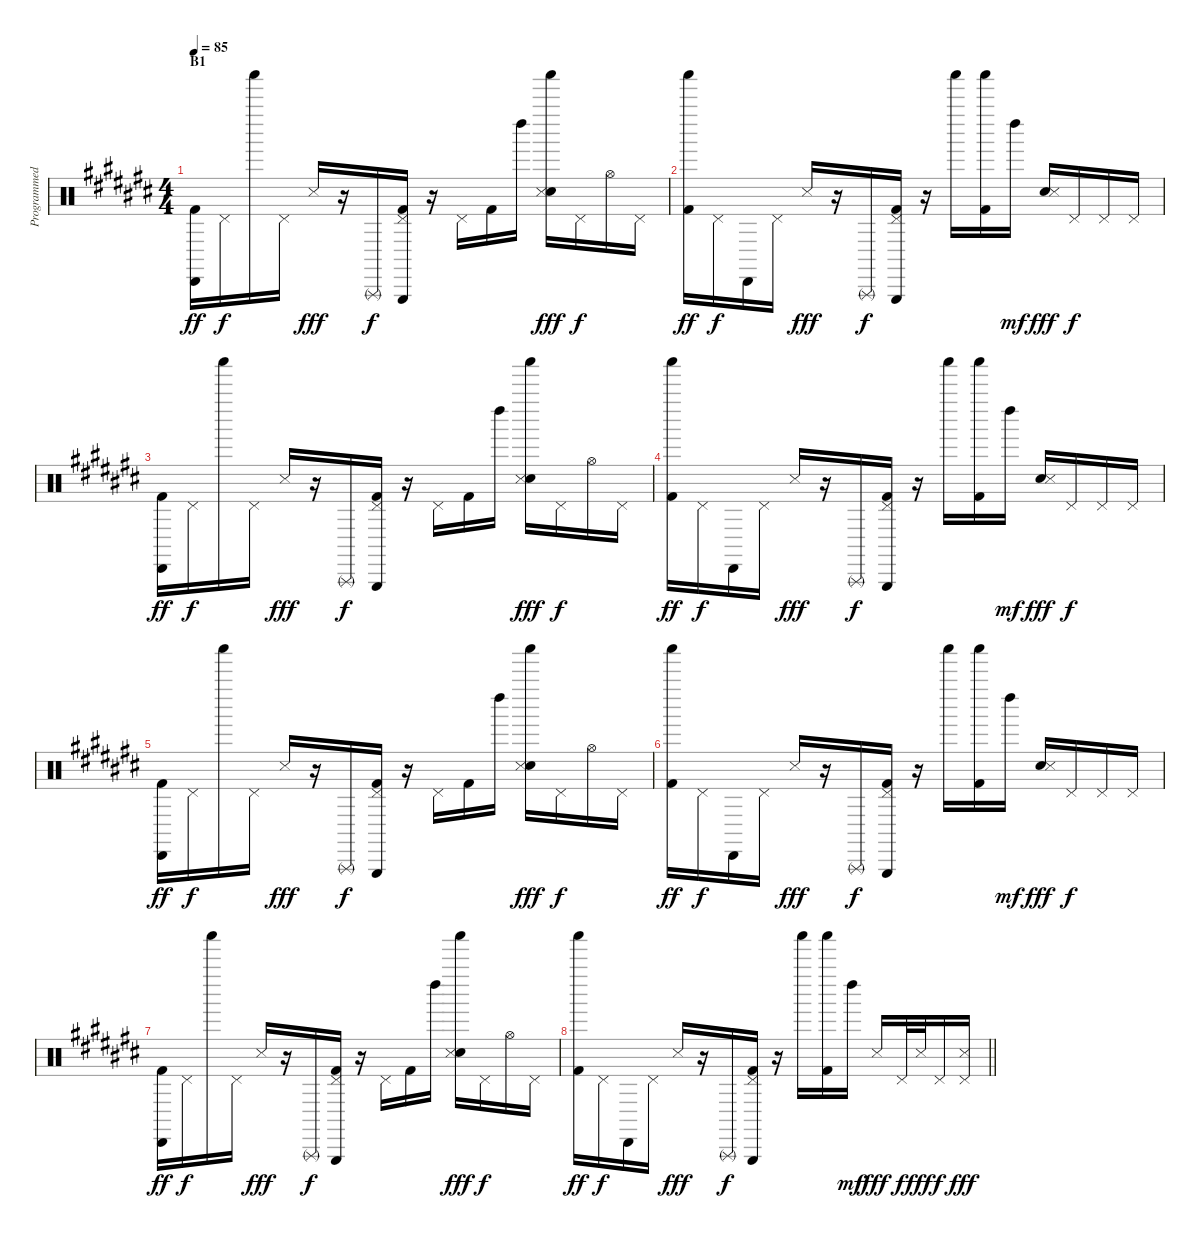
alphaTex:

\track ("Programmed Drum" "Programmed") {instrument percussion}
\staff {score}
\articulation defaults
\ts (4 4)
\section ("" "B1")
\tempo 85
\clef neutral
\ks c#
("Cabasa (hit)" "Kick (hit) 2").16{dy ff} "Pedal Hi-Hat (hit)".16{dy f} "Shaker (hit)".16 "Pedal Hi-Hat (hit)".16 "Snare (side stick) 3".16{dy fff} r.16 "Triangle (rnute)".16{dy f} ("Triangle (hit)" "Pedal Hi-Hat (hit)" "Kick (hit) 2").16 r.16 "Pedal Hi-Hat (hit)".16 "Kick (hit) 2".16 "Left Maraca (hit)".16 ("Shaker (hit)" "Hand Clap (hit)" "Snare (side stick) 3").16{dy fff} "Pedal Hi-Hat (hit)".16{dy f} "Hi-Hat (open)".16 "Pedal Hi-Hat (hit)".16 |
("Shaker (hit)" "Kick (hit) 2").16{dy ff} "Pedal Hi-Hat (hit)".16{dy f} "Cabasa (hit)".16 "Pedal Hi-Hat (hit)".16 "Snare (side stick) 3".16{dy fff} r.16 "Triangle (rnute)".16{dy f} ("Triangle (hit)" "Pedal Hi-Hat (hit)" "Kick (hit) 2").16 r.16 "Shaker (hit)".16 ("Shaker (hit)" "Kick (hit) 2").16 "Left Maraca (hit)".16{dy mf} ("Hand Clap (hit)" "Snare (side stick) 3").16{dy fff} "Pedal Hi-Hat (hit)".16{dy f} "Pedal Hi-Hat (hit)".16 "Pedal Hi-Hat (hit)".16 |
("Cabasa (hit)" "Kick (hit) 2").16{dy ff} "Pedal Hi-Hat (hit)".16{dy f} "Shaker (hit)".16 "Pedal Hi-Hat (hit)".16 "Snare (side stick) 3".16{dy fff} r.16 "Triangle (rnute)".16{dy f} ("Triangle (hit)" "Pedal Hi-Hat (hit)" "Kick (hit) 2").16 r.16 "Pedal Hi-Hat (hit)".16 "Kick (hit) 2".16 "Left Maraca (hit)".16 ("Shaker (hit)" "Hand Clap (hit)" "Snare (side stick) 3").16{dy fff} "Pedal Hi-Hat (hit)".16{dy f} "Hi-Hat (open)".16 "Pedal Hi-Hat (hit)".16 |
("Shaker (hit)" "Kick (hit) 2").16{dy ff} "Pedal Hi-Hat (hit)".16{dy f} "Cabasa (hit)".16 "Pedal Hi-Hat (hit)".16 "Snare (side stick) 3".16{dy fff} r.16 "Triangle (rnute)".16{dy f} ("Triangle (hit)" "Pedal Hi-Hat (hit)" "Kick (hit) 2").16 r.16 "Shaker (hit)".16 ("Shaker (hit)" "Kick (hit) 2").16 "Left Maraca (hit)".16{dy mf} ("Hand Clap (hit)" "Snare (side stick) 3").16{dy fff} "Pedal Hi-Hat (hit)".16{dy f} "Pedal Hi-Hat (hit)".16 "Pedal Hi-Hat (hit)".16 |
("Cabasa (hit)" "Kick (hit) 2").16{dy ff} "Pedal Hi-Hat (hit)".16{dy f} "Shaker (hit)".16 "Pedal Hi-Hat (hit)".16 "Snare (side stick) 3".16{dy fff} r.16 "Triangle (rnute)".16{dy f} ("Triangle (hit)" "Pedal Hi-Hat (hit)" "Kick (hit) 2").16 r.16 "Pedal Hi-Hat (hit)".16 "Kick (hit) 2".16 "Left Maraca (hit)".16 ("Shaker (hit)" "Hand Clap (hit)" "Snare (side stick) 3").16{dy fff} "Pedal Hi-Hat (hit)".16{dy f} "Hi-Hat (open)".16 "Pedal Hi-Hat (hit)".16 |
("Shaker (hit)" "Kick (hit) 2").16{dy ff} "Pedal Hi-Hat (hit)".16{dy f} "Cabasa (hit)".16 "Pedal Hi-Hat (hit)".16 "Snare (side stick) 3".16{dy fff} r.16 "Triangle (rnute)".16{dy f} ("Triangle (hit)" "Pedal Hi-Hat (hit)" "Kick (hit) 2").16 r.16 "Shaker (hit)".16 ("Shaker (hit)" "Kick (hit) 2").16 "Left Maraca (hit)".16{dy mf} ("Hand Clap (hit)" "Snare (side stick) 3").16{dy fff} "Pedal Hi-Hat (hit)".16{dy f} "Pedal Hi-Hat (hit)".16 "Pedal Hi-Hat (hit)".16 |
("Cabasa (hit)" "Kick (hit) 2").16{dy ff} "Pedal Hi-Hat (hit)".16{dy f} "Shaker (hit)".16 "Pedal Hi-Hat (hit)".16 "Snare (side stick) 3".16{dy fff} r.16 "Triangle (rnute)".16{dy f} ("Triangle (hit)" "Pedal Hi-Hat (hit)" "Kick (hit) 2").16 r.16 "Pedal Hi-Hat (hit)".16 "Kick (hit) 2".16 "Left Maraca (hit)".16 ("Shaker (hit)" "Hand Clap (hit)" "Snare (side stick) 3").16{dy fff} "Pedal Hi-Hat (hit)".16{dy f} "Hi-Hat (open)".16 "Pedal Hi-Hat (hit)".16 |
\barLineRight lightlight
("Shaker (hit)" "Kick (hit) 2").16{dy ff} "Pedal Hi-Hat (hit)".16{dy f} "Cabasa (hit)".16 "Pedal Hi-Hat (hit)".16 "Snare (side stick) 3".16{dy fff} r.16 "Triangle (rnute)".16{dy f} ("Triangle (hit)" "Pedal Hi-Hat (hit)" "Kick (hit) 2").16 r.16 "Shaker (hit)".16 ("Shaker (hit)" "Kick (hit) 2").16 "Left Maraca (hit)".16{dy mf} "Snare (side stick) 3".16{dy fff} "Pedal Hi-Hat (hit)".32{dy f} "Snare (side stick) 3".32{dy fff} "Pedal Hi-Hat (hit)".16{dy f} ("Pedal Hi-Hat (hit)" "Snare (side stick) 3").16{dy fff}
